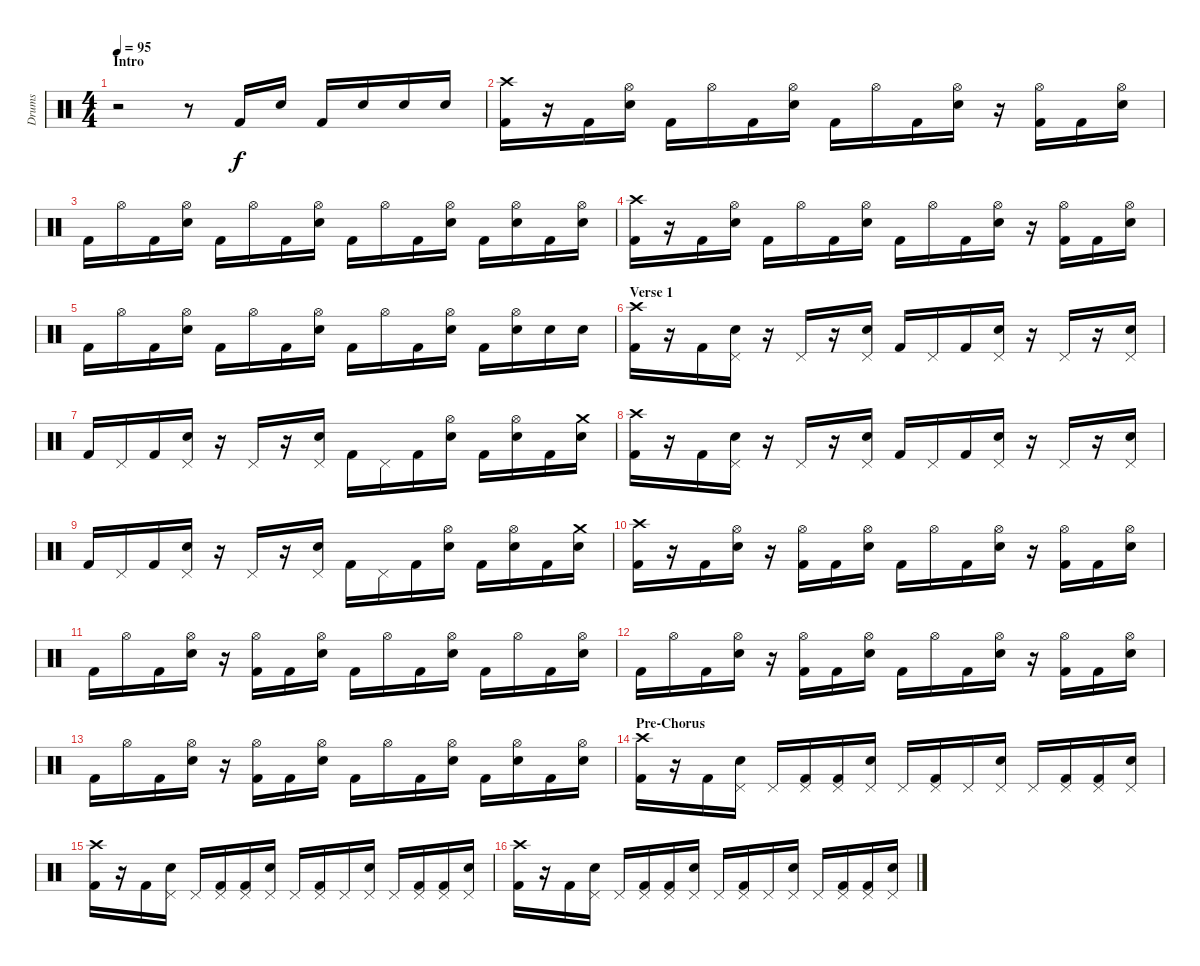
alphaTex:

\track ("Drums" "Drums") {instrument percussion}
\staff {score}
\articulation defaults
\ts (4 4)
\section ("" "Intro")
\tempo 95
\clef neutral
\ks c
r.2{dy f} r.8 "Kick (hit) 2".16 "Electric Snare (hit)".16 "Kick (hit) 2".16 "Electric Snare (hit)".16 "Electric Snare (hit)".16 "Electric Snare (hit)".16 |
("Crash high (hit)" "Kick (hit) 2").16 r.16 "Kick (hit) 2".16 ("Hi-Hat (open)" "Electric Snare (hit)").16 "Kick (hit) 2".16 "Hi-Hat (open)".16 "Kick (hit) 2".16 ("Hi-Hat (open)" "Electric Snare (hit)").16 "Kick (hit) 2".16 "Hi-Hat (open)".16 "Kick (hit) 2".16 ("Hi-Hat (open)" "Electric Snare (hit)").16 r.16 ("Hi-Hat (open)" "Kick (hit) 2").16 "Kick (hit) 2".16 ("Hi-Hat (open)" "Electric Snare (hit)").16 |
"Kick (hit) 2".16 "Hi-Hat (open)".16 "Kick (hit) 2".16 ("Hi-Hat (open)" "Electric Snare (hit)").16 "Kick (hit) 2".16 "Hi-Hat (open)".16 "Kick (hit) 2".16 ("Hi-Hat (open)" "Electric Snare (hit)").16 "Kick (hit) 2".16 "Hi-Hat (open)".16 "Kick (hit) 2".16 ("Hi-Hat (open)" "Electric Snare (hit)").16 "Kick (hit) 2".16 ("Hi-Hat (open)" "Electric Snare (hit)").16 "Kick (hit) 2".16 ("Hi-Hat (open)" "Electric Snare (hit)").16 |
("Crash high (hit)" "Kick (hit) 2").16 r.16 "Kick (hit) 2".16 ("Hi-Hat (open)" "Electric Snare (hit)").16 "Kick (hit) 2".16 "Hi-Hat (open)".16 "Kick (hit) 2".16 ("Hi-Hat (open)" "Electric Snare (hit)").16 "Kick (hit) 2".16 "Hi-Hat (open)".16 "Kick (hit) 2".16 ("Hi-Hat (open)" "Electric Snare (hit)").16 r.16 ("Hi-Hat (open)" "Kick (hit) 2").16 "Kick (hit) 2".16 ("Hi-Hat (open)" "Electric Snare (hit)").16 |
"Kick (hit) 2".16 "Hi-Hat (open)".16 "Kick (hit) 2".16 ("Hi-Hat (open)" "Electric Snare (hit)").16 "Kick (hit) 2".16 "Hi-Hat (open)".16 "Kick (hit) 2".16 ("Hi-Hat (open)" "Electric Snare (hit)").16 "Kick (hit) 2".16 "Hi-Hat (open)".16 "Kick (hit) 2".16 ("Hi-Hat (open)" "Electric Snare (hit)").16 "Kick (hit) 2".16 ("Hi-Hat (open)" "Electric Snare (hit)").16 "Electric Snare (hit)".16 "Electric Snare (hit)".16 |
\section ("" "Verse 1 ")
("Crash high (hit)" "Kick (hit) 2").16 r.16 "Kick (hit) 2".16 ("Pedal Hi-Hat (hit)" "Electric Snare (hit)").16 r.16 "Pedal Hi-Hat (hit)".16 r.16 ("Pedal Hi-Hat (hit)" "Electric Snare (hit)").16 "Kick (hit) 2".16 "Pedal Hi-Hat (hit)".16 "Kick (hit) 2".16 ("Pedal Hi-Hat (hit)" "Electric Snare (hit)").16 r.16 "Pedal Hi-Hat (hit)".16 r.16 ("Pedal Hi-Hat (hit)" "Electric Snare (hit)").16 |
"Kick (hit) 2".16 "Pedal Hi-Hat (hit)".16 "Kick (hit) 2".16 ("Pedal Hi-Hat (hit)" "Electric Snare (hit)").16 r.16 "Pedal Hi-Hat (hit)".16 r.16 ("Pedal Hi-Hat (hit)" "Electric Snare (hit)").16 "Kick (hit) 2".16 "Pedal Hi-Hat (hit)".16 "Kick (hit) 2".16 ("Hi-Hat (open)" "Electric Snare (hit)").16 "Kick (hit) 2".16 ("Hi-Hat (open)" "Electric Snare (hit)").16 "Kick (hit) 2".16 ("Crash medium (hit)" "Electric Snare (hit)").16 |
("Crash high (hit)" "Kick (hit) 2").16 r.16 "Kick (hit) 2".16 ("Pedal Hi-Hat (hit)" "Electric Snare (hit)").16 r.16 "Pedal Hi-Hat (hit)".16 r.16 ("Pedal Hi-Hat (hit)" "Electric Snare (hit)").16 "Kick (hit) 2".16 "Pedal Hi-Hat (hit)".16 "Kick (hit) 2".16 ("Pedal Hi-Hat (hit)" "Electric Snare (hit)").16 r.16 "Pedal Hi-Hat (hit)".16 r.16 ("Pedal Hi-Hat (hit)" "Electric Snare (hit)").16 |
"Kick (hit) 2".16 "Pedal Hi-Hat (hit)".16 "Kick (hit) 2".16 ("Pedal Hi-Hat (hit)" "Electric Snare (hit)").16 r.16 "Pedal Hi-Hat (hit)".16 r.16 ("Pedal Hi-Hat (hit)" "Electric Snare (hit)").16 "Kick (hit) 2".16 "Pedal Hi-Hat (hit)".16 "Kick (hit) 2".16 ("Hi-Hat (open)" "Electric Snare (hit)").16 "Kick (hit) 2".16 ("Hi-Hat (open)" "Electric Snare (hit)").16 "Kick (hit) 2".16 ("Crash medium (hit)" "Electric Snare (hit)").16 |
("Crash high (hit)" "Kick (hit) 2").16 r.16 "Kick (hit) 2".16 ("Hi-Hat (open)" "Electric Snare (hit)").16 r.16 ("Hi-Hat (open)" "Kick (hit) 2").16 "Kick (hit) 2".16 ("Hi-Hat (open)" "Electric Snare (hit)").16 "Kick (hit) 2".16 "Hi-Hat (open)".16 "Kick (hit) 2".16 ("Hi-Hat (open)" "Electric Snare (hit)").16 r.16 ("Hi-Hat (open)" "Kick (hit) 2").16 "Kick (hit) 2".16 ("Hi-Hat (open)" "Electric Snare (hit)").16 |
"Kick (hit) 2".16 "Hi-Hat (open)".16 "Kick (hit) 2".16 ("Hi-Hat (open)" "Electric Snare (hit)").16 r.16 ("Hi-Hat (open)" "Kick (hit) 2").16 "Kick (hit) 2".16 ("Hi-Hat (open)" "Electric Snare (hit)").16 "Kick (hit) 2".16 "Hi-Hat (open)".16 "Kick (hit) 2".16 ("Hi-Hat (open)" "Electric Snare (hit)").16 "Kick (hit) 2".16 "Hi-Hat (open)".16 "Kick (hit) 2".16 ("Hi-Hat (open)" "Electric Snare (hit)").16 |
"Kick (hit) 2".16 "Hi-Hat (open)".16 "Kick (hit) 2".16 ("Hi-Hat (open)" "Electric Snare (hit)").16 r.16 ("Hi-Hat (open)" "Kick (hit) 2").16 "Kick (hit) 2".16 ("Hi-Hat (open)" "Electric Snare (hit)").16 "Kick (hit) 2".16 "Hi-Hat (open)".16 "Kick (hit) 2".16 ("Hi-Hat (open)" "Electric Snare (hit)").16 r.16 ("Hi-Hat (open)" "Kick (hit) 2").16 "Kick (hit) 2".16 ("Hi-Hat (open)" "Electric Snare (hit)").16 |
"Kick (hit) 2".16 "Hi-Hat (open)".16 "Kick (hit) 2".16 ("Hi-Hat (open)" "Electric Snare (hit)").16 r.16 ("Hi-Hat (open)" "Kick (hit) 2").16 "Kick (hit) 2".16 ("Hi-Hat (open)" "Electric Snare (hit)").16 "Kick (hit) 2".16 "Hi-Hat (open)".16 "Kick (hit) 2".16 ("Hi-Hat (open)" "Electric Snare (hit)").16 "Kick (hit) 2".16 ("Hi-Hat (open)" "Electric Snare (hit)").16 "Kick (hit) 2".16 ("Hi-Hat (open)" "Electric Snare (hit)").16 |
\section ("" "Pre-Chorus")
("Crash high (hit)" "Kick (hit) 2").16 r.16 "Kick (hit) 2".16 ("Pedal Hi-Hat (hit)" "Electric Snare (hit)").16 "Pedal Hi-Hat (hit)".16 ("Pedal Hi-Hat (hit)" "Kick (hit) 2").16 ("Pedal Hi-Hat (hit)" "Kick (hit) 2").16 ("Pedal Hi-Hat (hit)" "Electric Snare (hit)").16 "Pedal Hi-Hat (hit)".16 ("Pedal Hi-Hat (hit)" "Kick (hit) 2").16 "Pedal Hi-Hat (hit)".16 ("Pedal Hi-Hat (hit)" "Electric Snare (hit)").16 "Pedal Hi-Hat (hit)".16 ("Pedal Hi-Hat (hit)" "Kick (hit) 2").16 ("Pedal Hi-Hat (hit)" "Kick (hit) 2").16 ("Pedal Hi-Hat (hit)" "Electric Snare (hit)").16 |
("Crash high (hit)" "Kick (hit) 2").16 r.16 "Kick (hit) 2".16 ("Pedal Hi-Hat (hit)" "Electric Snare (hit)").16 "Pedal Hi-Hat (hit)".16 ("Pedal Hi-Hat (hit)" "Kick (hit) 2").16 ("Pedal Hi-Hat (hit)" "Kick (hit) 2").16 ("Pedal Hi-Hat (hit)" "Electric Snare (hit)").16 "Pedal Hi-Hat (hit)".16 ("Pedal Hi-Hat (hit)" "Kick (hit) 2").16 "Pedal Hi-Hat (hit)".16 ("Pedal Hi-Hat (hit)" "Electric Snare (hit)").16 "Pedal Hi-Hat (hit)".16 ("Pedal Hi-Hat (hit)" "Kick (hit) 2").16 ("Pedal Hi-Hat (hit)" "Kick (hit) 2").16 ("Pedal Hi-Hat (hit)" "Electric Snare (hit)").16 |
("Crash high (hit)" "Kick (hit) 2").16 r.16 "Kick (hit) 2".16 ("Pedal Hi-Hat (hit)" "Electric Snare (hit)").16 "Pedal Hi-Hat (hit)".16 ("Pedal Hi-Hat (hit)" "Kick (hit) 2").16 ("Pedal Hi-Hat (hit)" "Kick (hit) 2").16 ("Pedal Hi-Hat (hit)" "Electric Snare (hit)").16 "Pedal Hi-Hat (hit)".16 ("Pedal Hi-Hat (hit)" "Kick (hit) 2").16 "Pedal Hi-Hat (hit)".16 ("Pedal Hi-Hat (hit)" "Electric Snare (hit)").16 "Pedal Hi-Hat (hit)".16 ("Pedal Hi-Hat (hit)" "Kick (hit) 2").16 ("Pedal Hi-Hat (hit)" "Kick (hit) 2").16 ("Pedal Hi-Hat (hit)" "Electric Snare (hit)").16
